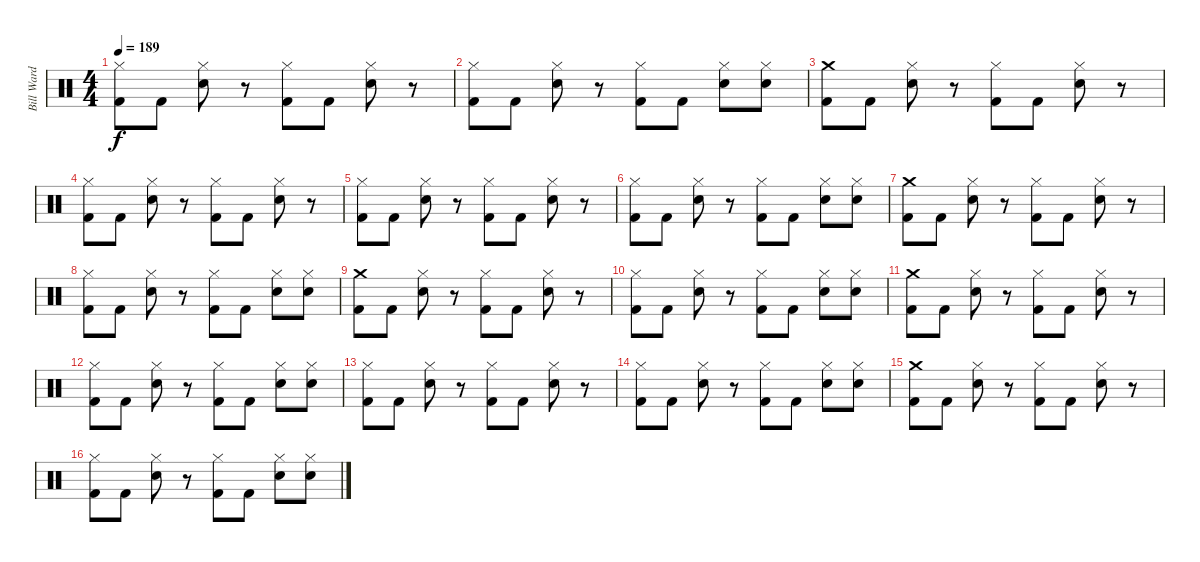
\track ("Bill Ward" "Bill Ward") {instrument percussion}
\staff {score}
\articulation defaults
\ts (4 4)
\tempo 189
\clef neutral
\ks c
("Hi-Hat (closed)" "Kick (hit) 2").8{dy f} "Kick (hit) 2".8 ("Hi-Hat (closed)" "Electric Snare (hit)").8 r.8 ("Kick (hit) 2" "Hi-Hat (closed)").8 "Kick (hit) 2".8 ("Hi-Hat (closed)" "Electric Snare (hit)").8 r.8 |
("Hi-Hat (closed)" "Kick (hit) 2").8 "Kick (hit) 2".8 ("Hi-Hat (closed)" "Electric Snare (hit)").8 r.8 ("Kick (hit) 2" "Hi-Hat (closed)").8 "Kick (hit) 2".8 ("Electric Snare (hit)" "Hi-Hat (closed)").8 ("Hi-Hat (closed)" "Electric Snare (hit)").8 |
("Kick (hit) 2" "Crash medium (hit)").8 "Kick (hit) 2".8 ("Hi-Hat (closed)" "Electric Snare (hit)").8 r.8 ("Kick (hit) 2" "Hi-Hat (closed)").8 "Kick (hit) 2".8 ("Electric Snare (hit)" "Hi-Hat (closed)").8 r.8 |
("Hi-Hat (closed)" "Kick (hit) 2").8 "Kick (hit) 2".8 ("Hi-Hat (closed)" "Electric Snare (hit)").8 r.8 ("Hi-Hat (closed)" "Kick (hit) 2").8 "Kick (hit) 2".8 ("Electric Snare (hit)" "Hi-Hat (closed)").8 r.8 |
("Hi-Hat (closed)" "Kick (hit) 2").8 "Kick (hit) 2".8 ("Hi-Hat (closed)" "Electric Snare (hit)").8 r.8 ("Hi-Hat (closed)" "Kick (hit) 2").8 "Kick (hit) 2".8 ("Hi-Hat (closed)" "Electric Snare (hit)").8 r.8 |
("Hi-Hat (closed)" "Kick (hit) 2").8 "Kick (hit) 2".8 ("Electric Snare (hit)" "Hi-Hat (closed)").8 r.8 ("Hi-Hat (closed)" "Kick (hit) 2").8 "Kick (hit) 2".8 ("Hi-Hat (closed)" "Electric Snare (hit)").8 ("Hi-Hat (closed)" "Electric Snare (hit)").8 |
("Crash medium (hit)" "Kick (hit) 2").8 "Kick (hit) 2".8 ("Hi-Hat (closed)" "Electric Snare (hit)").8 r.8 ("Hi-Hat (closed)" "Kick (hit) 2").8 "Kick (hit) 2".8 ("Hi-Hat (closed)" "Electric Snare (hit)").8 r.8 |
("Hi-Hat (closed)" "Kick (hit) 2").8 "Kick (hit) 2".8 ("Electric Snare (hit)" "Hi-Hat (closed)").8 r.8 ("Kick (hit) 2" "Hi-Hat (closed)").8 "Kick (hit) 2".8 ("Electric Snare (hit)" "Hi-Hat (closed)").8 ("Electric Snare (hit)" "Hi-Hat (closed)").8 |
("Kick (hit) 2" "Crash medium (hit)").8 "Kick (hit) 2".8 ("Hi-Hat (closed)" "Electric Snare (hit)").8 r.8 ("Kick (hit) 2" "Hi-Hat (closed)").8 "Kick (hit) 2".8 ("Hi-Hat (closed)" "Electric Snare (hit)").8 r.8 |
("Hi-Hat (closed)" "Kick (hit) 2").8 "Kick (hit) 2".8 ("Hi-Hat (closed)" "Electric Snare (hit)").8 r.8 ("Kick (hit) 2" "Hi-Hat (closed)").8 "Kick (hit) 2".8 ("Electric Snare (hit)" "Hi-Hat (closed)").8 ("Hi-Hat (closed)" "Electric Snare (hit)").8 |
("Kick (hit) 2" "Crash medium (hit)").8 "Kick (hit) 2".8 ("Hi-Hat (closed)" "Electric Snare (hit)").8 r.8 ("Hi-Hat (closed)" "Kick (hit) 2").8 "Kick (hit) 2".8 ("Hi-Hat (closed)" "Electric Snare (hit)").8 r.8 |
("Hi-Hat (closed)" "Kick (hit) 2").8 "Kick (hit) 2".8 ("Electric Snare (hit)" "Hi-Hat (closed)").8 r.8 ("Hi-Hat (closed)" "Kick (hit) 2").8 "Kick (hit) 2".8 ("Electric Snare (hit)" "Hi-Hat (closed)").8 ("Hi-Hat (closed)" "Electric Snare (hit)").8 |
("Kick (hit) 2" "Hi-Hat (closed)").8 "Kick (hit) 2".8 ("Hi-Hat (closed)" "Electric Snare (hit)").8 r.8 ("Kick (hit) 2" "Hi-Hat (closed)").8 "Kick (hit) 2".8 ("Hi-Hat (closed)" "Electric Snare (hit)").8 r.8 |
("Hi-Hat (closed)" "Kick (hit) 2").8 "Kick (hit) 2".8 ("Hi-Hat (closed)" "Electric Snare (hit)").8 r.8 ("Kick (hit) 2" "Hi-Hat (closed)").8 "Kick (hit) 2".8 ("Hi-Hat (closed)" "Electric Snare (hit)").8 ("Hi-Hat (closed)" "Electric Snare (hit)").8 |
("Crash medium (hit)" "Kick (hit) 2").8 "Kick (hit) 2".8 ("Hi-Hat (closed)" "Electric Snare (hit)").8 r.8 ("Kick (hit) 2" "Hi-Hat (closed)").8 "Kick (hit) 2".8 ("Hi-Hat (closed)" "Electric Snare (hit)").8 r.8 |
("Hi-Hat (closed)" "Kick (hit) 2").8 "Kick (hit) 2".8 ("Electric Snare (hit)" "Hi-Hat (closed)").8 r.8 ("Hi-Hat (closed)" "Kick (hit) 2").8 "Kick (hit) 2".8 ("Hi-Hat (closed)" "Electric Snare (hit)").8 ("Hi-Hat (closed)" "Electric Snare (hit)").8
